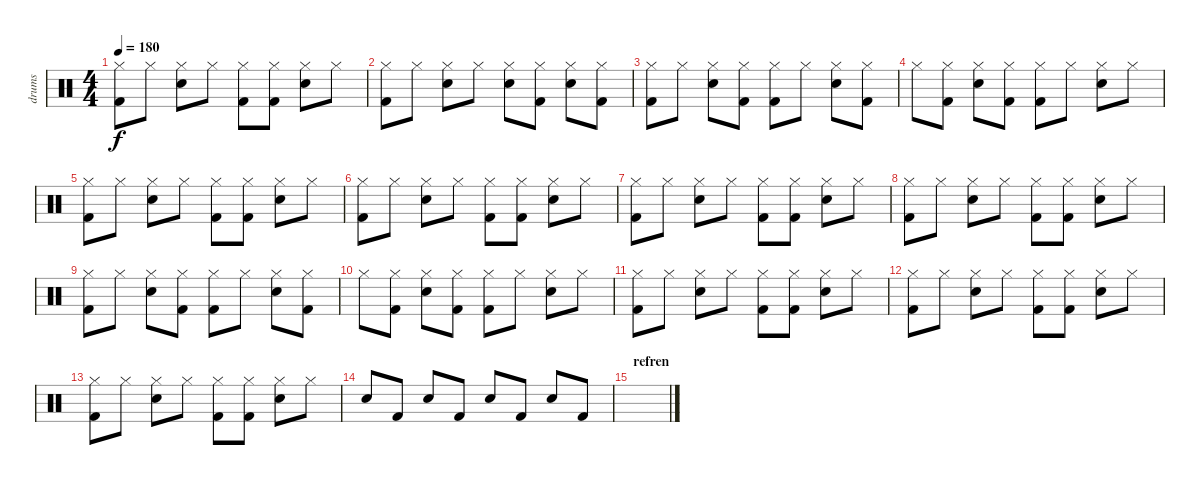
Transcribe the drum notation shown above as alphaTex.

\track ("drums" "drums") {instrument percussion}
\staff {score}
\articulation defaults
\ts (4 4)
\tempo 180
\clef neutral
\ks c
("Hi-Hat (closed)" "Kick (hit) 2").8{dy f} "Hi-Hat (closed)".8 ("Hi-Hat (closed)" "Snare (hit) 2").8 "Hi-Hat (closed)".8 ("Hi-Hat (closed)" "Kick (hit) 2").8 ("Hi-Hat (closed)" "Kick (hit) 2").8 ("Hi-Hat (closed)" "Snare (hit) 2").8 "Hi-Hat (closed)".8 |
("Hi-Hat (closed)" "Kick (hit) 2").8 "Hi-Hat (closed)".8 ("Hi-Hat (closed)" "Snare (hit) 2").8 "Hi-Hat (closed)".8 ("Hi-Hat (closed)" "Snare (hit) 2").8 ("Hi-Hat (closed)" "Kick (hit) 2").8 ("Hi-Hat (closed)" "Snare (hit) 2").8 ("Hi-Hat (closed)" "Kick (hit) 2").8 |
("Hi-Hat (closed)" "Kick (hit) 2").8 "Hi-Hat (closed)".8 ("Hi-Hat (closed)" "Snare (hit) 2").8 ("Hi-Hat (closed)" "Kick (hit) 2").8 ("Hi-Hat (closed)" "Kick (hit) 2").8 "Hi-Hat (closed)".8 ("Hi-Hat (closed)" "Snare (hit) 2").8 ("Hi-Hat (closed)" "Kick (hit) 2").8 |
"Hi-Hat (closed)".8 ("Hi-Hat (closed)" "Kick (hit) 2").8 ("Hi-Hat (closed)" "Snare (hit) 2").8 ("Hi-Hat (closed)" "Kick (hit) 2").8 ("Hi-Hat (closed)" "Kick (hit) 2").8 "Hi-Hat (closed)".8 ("Hi-Hat (closed)" "Snare (hit) 2").8 "Hi-Hat (closed)".8 |
("Hi-Hat (closed)" "Kick (hit) 2").8 "Hi-Hat (closed)".8 ("Hi-Hat (closed)" "Snare (hit) 2").8 "Hi-Hat (closed)".8 ("Hi-Hat (closed)" "Kick (hit) 2").8 ("Hi-Hat (closed)" "Kick (hit) 2").8 ("Hi-Hat (closed)" "Snare (hit) 2").8 "Hi-Hat (closed)".8 |
("Hi-Hat (closed)" "Kick (hit) 2").8 "Hi-Hat (closed)".8 ("Hi-Hat (closed)" "Snare (hit) 2").8 "Hi-Hat (closed)".8 ("Hi-Hat (closed)" "Kick (hit) 2").8 ("Hi-Hat (closed)" "Kick (hit) 2").8 ("Hi-Hat (closed)" "Snare (hit) 2").8 "Hi-Hat (closed)".8 |
("Hi-Hat (closed)" "Kick (hit) 2").8 "Hi-Hat (closed)".8 ("Hi-Hat (closed)" "Snare (hit) 2").8 "Hi-Hat (closed)".8 ("Hi-Hat (closed)" "Kick (hit) 2").8 ("Hi-Hat (closed)" "Kick (hit) 2").8 ("Hi-Hat (closed)" "Snare (hit) 2").8 "Hi-Hat (closed)".8 |
("Hi-Hat (closed)" "Kick (hit) 2").8 "Hi-Hat (closed)".8 ("Hi-Hat (closed)" "Snare (hit) 2").8 "Hi-Hat (closed)".8 ("Hi-Hat (closed)" "Kick (hit) 2").8 ("Hi-Hat (closed)" "Kick (hit) 2").8 ("Hi-Hat (closed)" "Snare (hit) 2").8 "Hi-Hat (closed)".8 |
("Hi-Hat (closed)" "Kick (hit) 2").8 "Hi-Hat (closed)".8 ("Hi-Hat (closed)" "Snare (hit) 2").8 ("Hi-Hat (closed)" "Kick (hit) 2").8 ("Hi-Hat (closed)" "Kick (hit) 2").8 "Hi-Hat (closed)".8 ("Hi-Hat (closed)" "Snare (hit) 2").8 ("Hi-Hat (closed)" "Kick (hit) 2").8 |
"Hi-Hat (closed)".8 ("Hi-Hat (closed)" "Kick (hit) 2").8 ("Hi-Hat (closed)" "Snare (hit) 2").8 ("Hi-Hat (closed)" "Kick (hit) 2").8 ("Hi-Hat (closed)" "Kick (hit) 2").8 "Hi-Hat (closed)".8 ("Hi-Hat (closed)" "Snare (hit) 2").8 "Hi-Hat (closed)".8 |
("Hi-Hat (closed)" "Kick (hit) 2").8 "Hi-Hat (closed)".8 ("Hi-Hat (closed)" "Snare (hit) 2").8 "Hi-Hat (closed)".8 ("Hi-Hat (closed)" "Kick (hit) 2").8 ("Hi-Hat (closed)" "Kick (hit) 2").8 ("Hi-Hat (closed)" "Snare (hit) 2").8 "Hi-Hat (closed)".8 |
("Hi-Hat (closed)" "Kick (hit) 2").8 "Hi-Hat (closed)".8 ("Hi-Hat (closed)" "Snare (hit) 2").8 "Hi-Hat (closed)".8 ("Hi-Hat (closed)" "Kick (hit) 2").8 ("Hi-Hat (closed)" "Kick (hit) 2").8 ("Hi-Hat (closed)" "Snare (hit) 2").8 "Hi-Hat (closed)".8 |
("Hi-Hat (closed)" "Kick (hit) 2").8 "Hi-Hat (closed)".8 ("Hi-Hat (closed)" "Snare (hit) 2").8 "Hi-Hat (closed)".8 ("Hi-Hat (closed)" "Kick (hit) 2").8 ("Hi-Hat (closed)" "Kick (hit) 2").8 ("Hi-Hat (closed)" "Snare (hit) 2").8 "Hi-Hat (closed)".8 |
"Snare (hit) 2".8 "Kick (hit) 2".8 "Snare (hit) 2".8 "Kick (hit) 2".8 "Snare (hit) 2".8 "Kick (hit) 2".8 "Snare (hit) 2".8 "Kick (hit) 2".8 |
\section ("" "refren")
